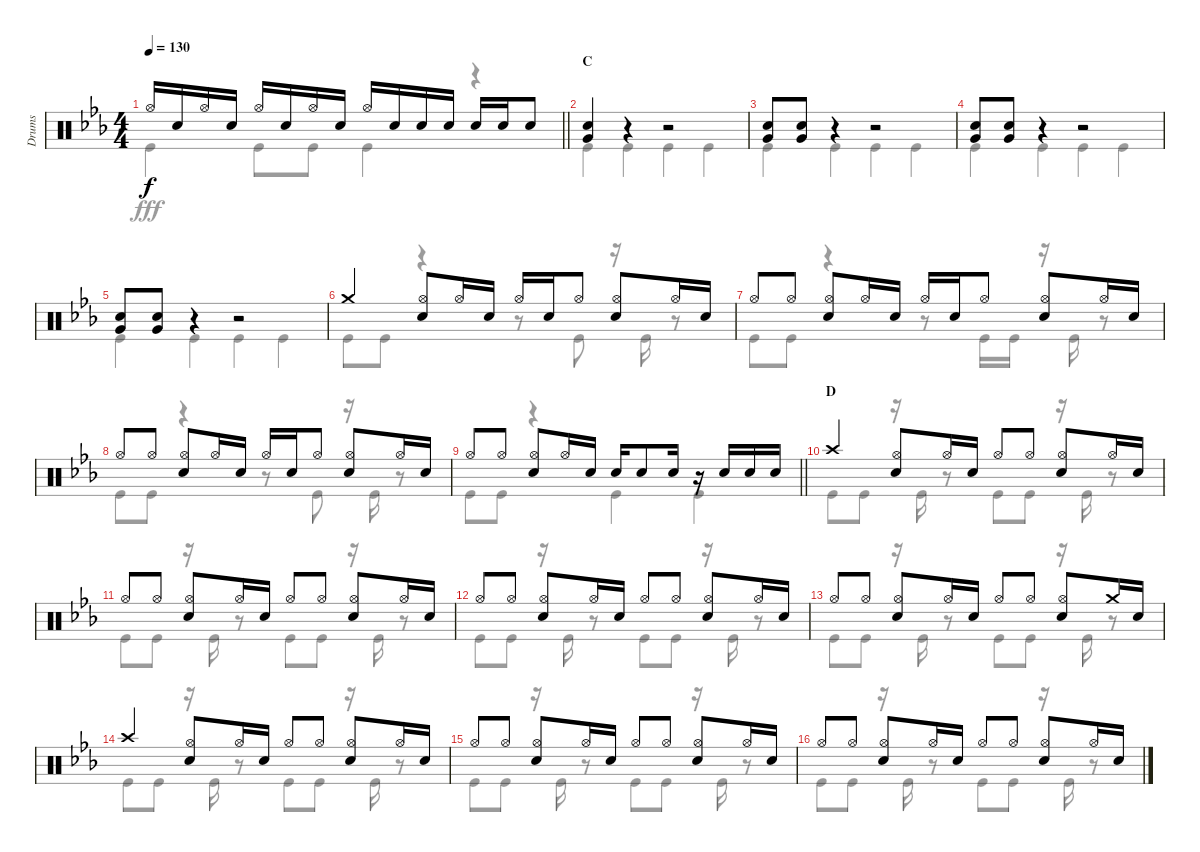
\track ("Drums" "Drums") {instrument percussion}
\staff {score}
\articulation defaults
\voice
\ts (4 4)
\tempo 130
\clef neutral
\barLineRight lightlight
\ks eb "Hi-Hat (open)".16{dy f} "Snare (hit) 2".16 "Hi-Hat (open)".16 "Snare (hit) 2".16 "Hi-Hat (open)".16 "Snare (hit) 2".16 "Hi-Hat (open)".16 "Snare (hit) 2".16 "Hi-Hat (open)".16 "Snare (hit) 2".16 "Snare (hit) 2".16 "Snare (hit) 2".16 "Snare (hit) 2".16 "Snare (hit) 2".16 "Snare (hit) 2".8
|
\section ("" "C")
("Snare (hit) 2" "Very Low Tom (hit)").4 r.4 r.2 |
("Snare (hit) 2" "Very Low Tom (hit)").8 ("Snare (hit) 2" "Very Low Tom (hit)").8 r.4 r.2 |
("Snare (hit) 2" "Very Low Tom (hit)").8 ("Snare (hit) 2" "Very Low Tom (hit)").8 r.4 r.2 |
("Snare (hit) 2" "Very Low Tom (hit)").8 ("Snare (hit) 2" "Very Low Tom (hit)").8 r.4 r.2 |
"Crash medium (hit)".4 ("Hi-Hat (open)" "Snare (hit) 2").8 "Hi-Hat (open)".16 "Snare (hit) 2".16 "Hi-Hat (open)".16 "Snare (hit) 2".16 "Hi-Hat (open)".8 ("Hi-Hat (open)" "Snare (hit) 2").8 "Hi-Hat (open)".16 "Snare (hit) 2".16 |
"Hi-Hat (open)".8 "Hi-Hat (open)".8 ("Hi-Hat (open)" "Snare (hit) 2").8 "Hi-Hat (open)".16 "Snare (hit) 2".16 "Hi-Hat (open)".16 "Snare (hit) 2".16 "Hi-Hat (open)".8 ("Hi-Hat (open)" "Snare (hit) 2").8 "Hi-Hat (open)".16 "Snare (hit) 2".16 |
"Hi-Hat (open)".8 "Hi-Hat (open)".8 ("Hi-Hat (open)" "Snare (hit) 2").8 "Hi-Hat (open)".16 "Snare (hit) 2".16 "Hi-Hat (open)".16 "Snare (hit) 2".16 "Hi-Hat (open)".8 ("Hi-Hat (open)" "Snare (hit) 2").8 "Hi-Hat (open)".16 "Snare (hit) 2".16 |
\barLineRight lightlight "Hi-Hat (open)".8 "Hi-Hat (open)".8
("Hi-Hat (open)" "Snare (hit) 2").8 "Hi-Hat (open)".16 "Snare (hit) 2".16 "Snare (hit) 2".16 "Snare (hit) 2".8 "Snare (hit) 2".16 r.16 "Snare (hit) 2".16 "Snare (hit) 2".16 "Snare (hit) 2".16 |
\section ("" "D")
"Crash high (hit)".4 ("Hi-Hat (open)" "Snare (hit) 2").8 "Hi-Hat (open)".16 "Snare (hit) 2".16 "Hi-Hat (open)".8 "Hi-Hat (open)".8 ("Hi-Hat (open)" "Snare (hit) 2").8 "Hi-Hat (open)".16 "Snare (hit) 2".16 |
"Hi-Hat (open)".8 "Hi-Hat (open)".8 ("Hi-Hat (open)" "Snare (hit) 2").8 "Hi-Hat (open)".16 "Snare (hit) 2".16 "Hi-Hat (open)".8 "Hi-Hat (open)".8 ("Hi-Hat (open)" "Snare (hit) 2").8 "Hi-Hat (open)".16 "Snare (hit) 2".16 |
"Hi-Hat (open)".8 "Hi-Hat (open)".8 ("Hi-Hat (open)" "Snare (hit) 2").8 "Hi-Hat (open)".16 "Snare (hit) 2".16 "Hi-Hat (open)".8 "Hi-Hat (open)".8 ("Hi-Hat (open)" "Snare (hit) 2").8 "Hi-Hat (open)".16 "Snare (hit) 2".16 |
"Hi-Hat (open)".8 "Hi-Hat (open)".8 ("Hi-Hat (open)" "Snare (hit) 2").8 "Hi-Hat (open)".16 "Snare (hit) 2".16 "Hi-Hat (open)".8 "Hi-Hat (open)".8 ("Hi-Hat (open)" "Snare (hit) 2").8 "Crash medium (hit)".16 "Snare (hit) 2".16 |
"Crash high (hit)".4 ("Hi-Hat (open)" "Snare (hit) 2").8 "Hi-Hat (open)".16 "Snare (hit) 2".16 "Hi-Hat (open)".8 "Hi-Hat (open)".8 ("Hi-Hat (open)" "Snare (hit) 2").8 "Hi-Hat (open)".16 "Snare (hit) 2".16 |
"Hi-Hat (open)".8 "Hi-Hat (open)".8 ("Hi-Hat (open)" "Snare (hit) 2").8 "Hi-Hat (open)".16 "Snare (hit) 2".16 "Hi-Hat (open)".8 "Hi-Hat (open)".8 ("Hi-Hat (open)" "Snare (hit) 2").8 "Hi-Hat (open)".16 "Snare (hit) 2".16 |
"Hi-Hat (open)".8 "Hi-Hat (open)".8 ("Hi-Hat (open)" "Snare (hit) 2").8 "Hi-Hat (open)".16 "Snare (hit) 2".16 "Hi-Hat (open)".8 "Hi-Hat (open)".8 ("Hi-Hat (open)" "Snare (hit) 2").8 "Hi-Hat (open)".16 "Snare (hit) 2".16
\voice
\clef neutral
\ottava regular
\simile none
\barLineRight lightlight
\ks eb "Kick (hit)".4{dy fff} "Kick (hit)".8 "Kick (hit)".8 "Kick (hit)".4
r.4 |
"Kick (hit)".4 "Kick (hit)".4 "Kick (hit)".4 "Kick (hit)".4 |
"Kick (hit)".4 "Kick (hit)".4 "Kick (hit)".4 "Kick (hit)".4 |
"Kick (hit)".4 "Kick (hit)".4 "Kick (hit)".4 "Kick (hit)".4 |
"Kick (hit)".4 "Kick (hit)".4 "Kick (hit)".4 "Kick (hit)".4 |
"Kick (hit)".8 "Kick (hit)".8 r.4 r.8 "Kick (hit)".8 r.16 "Kick (hit)".16 r.8 |
"Kick (hit)".8 "Kick (hit)".8 r.4 r.8 "Kick (hit)".16 "Kick (hit)".16 r.16 "Kick (hit)".16 r.8 |
"Kick (hit)".8 "Kick (hit)".8 r.4 r.8 "Kick (hit)".8 r.16 "Kick (hit)".16 r.8 |
\barLineRight lightlight "Kick (hit)".8 "Kick (hit)".8
r.4 "Kick (hit)".4 "Kick (hit)".4 |
"Kick (hit)".8 "Kick (hit)".8 r.16 "Kick (hit)".16 r.8 "Kick (hit)".8 "Kick (hit)".8 r.16 "Kick (hit)".16 r.8 |
"Kick (hit)".8 "Kick (hit)".8 r.16 "Kick (hit)".16 r.8 "Kick (hit)".8 "Kick (hit)".8 r.16 "Kick (hit)".16 r.8 |
"Kick (hit)".8 "Kick (hit)".8 r.16 "Kick (hit)".16 r.8 "Kick (hit)".8 "Kick (hit)".8 r.16 "Kick (hit)".16 r.8 |
"Kick (hit)".8 "Kick (hit)".8 r.16 "Kick (hit)".16 r.8 "Kick (hit)".8 "Kick (hit)".8 r.16 "Kick (hit)".16 r.8 |
"Kick (hit)".8 "Kick (hit)".8 r.16 "Kick (hit)".16 r.8 "Kick (hit)".8 "Kick (hit)".8 r.16 "Kick (hit)".16 r.8 |
"Kick (hit)".8 "Kick (hit)".8 r.16 "Kick (hit)".16 r.8 "Kick (hit)".8 "Kick (hit)".8 r.16 "Kick (hit)".16 r.8 |
"Kick (hit)".8 "Kick (hit)".8 r.16 "Kick (hit)".16 r.8 "Kick (hit)".8 "Kick (hit)".8 r.16 "Kick (hit)".16 r.8
